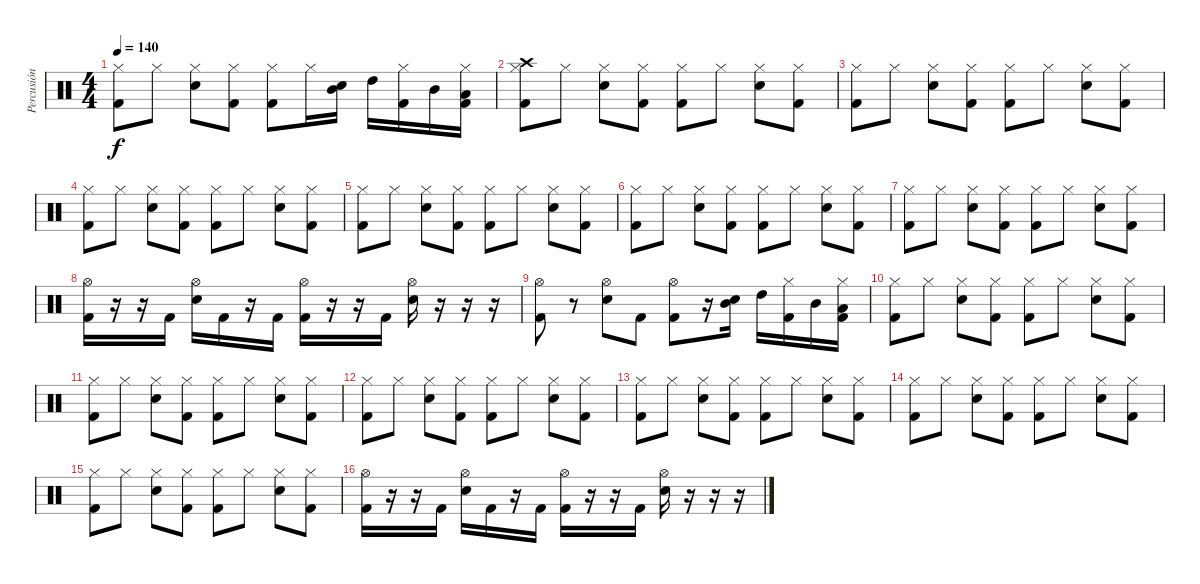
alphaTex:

\track ("Percusión" "Percusión") {instrument percussion}
\staff {score}
\articulation defaults
\ts (4 4)
\tempo 140
\clef neutral
\ks c
("Hi-Hat (closed)" "Kick (hit) 2").8{dy f} "Hi-Hat (closed)".8 ("Hi-Hat (closed)" "Snare (hit) 2").8 ("Hi-Hat (closed)" "Kick (hit) 2").8 ("Hi-Hat (closed)" "Kick (hit) 2").8 "Hi-Hat (closed)".16 ("Mid Tom (hit)" "Snare (hit) 2").16 "High Tom (hit)".16 ("Hi-Hat (closed)" "Kick (hit) 2").16 "Mid Tom (hit)".16 ("Hi-Hat (closed)" "Low Tom (hit)" "Kick (hit) 2").16 |
("Hi-Hat (closed)" "Kick (hit) 2" "Crash high (hit)").8 "Hi-Hat (closed)".8 ("Hi-Hat (closed)" "Snare (hit) 2").8 ("Hi-Hat (closed)" "Kick (hit) 2").8 ("Hi-Hat (closed)" "Kick (hit) 2").8 "Hi-Hat (closed)".8 ("Hi-Hat (closed)" "Snare (hit) 2").8 ("Hi-Hat (closed)" "Kick (hit) 2").8 |
("Hi-Hat (closed)" "Kick (hit) 2").8 "Hi-Hat (closed)".8 ("Hi-Hat (closed)" "Snare (hit) 2").8 ("Hi-Hat (closed)" "Kick (hit) 2").8 ("Hi-Hat (closed)" "Kick (hit) 2").8 "Hi-Hat (closed)".8 ("Hi-Hat (closed)" "Snare (hit) 2").8 ("Hi-Hat (closed)" "Kick (hit) 2").8 |
("Hi-Hat (closed)" "Kick (hit) 2").8 "Hi-Hat (closed)".8 ("Hi-Hat (closed)" "Snare (hit) 2").8 ("Hi-Hat (closed)" "Kick (hit) 2").8 ("Hi-Hat (closed)" "Kick (hit) 2").8 "Hi-Hat (closed)".8 ("Hi-Hat (closed)" "Snare (hit) 2").8 ("Hi-Hat (closed)" "Kick (hit) 2").8 |
("Hi-Hat (closed)" "Kick (hit) 2").8 "Hi-Hat (closed)".8 ("Hi-Hat (closed)" "Snare (hit) 2").8 ("Hi-Hat (closed)" "Kick (hit) 2").8 ("Hi-Hat (closed)" "Kick (hit) 2").8 "Hi-Hat (closed)".8 ("Hi-Hat (closed)" "Snare (hit) 2").8 ("Hi-Hat (closed)" "Kick (hit) 2").8 |
("Hi-Hat (closed)" "Kick (hit) 2").8 "Hi-Hat (closed)".8 ("Hi-Hat (closed)" "Snare (hit) 2").8 ("Hi-Hat (closed)" "Kick (hit) 2").8 ("Hi-Hat (closed)" "Kick (hit) 2").8 "Hi-Hat (closed)".8 ("Hi-Hat (closed)" "Snare (hit) 2").8 ("Hi-Hat (closed)" "Kick (hit) 2").8 |
("Hi-Hat (closed)" "Kick (hit) 2").8 "Hi-Hat (closed)".8 ("Hi-Hat (closed)" "Snare (hit) 2").8 ("Hi-Hat (closed)" "Kick (hit) 2").8 ("Hi-Hat (closed)" "Kick (hit) 2").8 "Hi-Hat (closed)".8 ("Hi-Hat (closed)" "Snare (hit) 2").8 ("Hi-Hat (closed)" "Kick (hit) 2").8 |
("Hi-Hat (open)" "Kick (hit) 2").16 r.16 r.16 "Kick (hit) 2".16 ("Hi-Hat (open)" "Snare (hit) 2").16 "Kick (hit) 2".16 r.16 "Kick (hit) 2".16 ("Hi-Hat (open)" "Kick (hit) 2").16 r.16 r.16 "Kick (hit) 2".16 ("Hi-Hat (open)" "Snare (hit) 2").16 r.16 r.16 r.16 |
("Hi-Hat (open)" "Kick (hit) 2").8 r.8 ("Hi-Hat (open)" "Snare (hit) 2").8 "Kick (hit) 2".8 ("Hi-Hat (open)" "Kick (hit) 2").8 r.16 ("Mid Tom (hit)" "Snare (hit) 2").16 "High Tom (hit)".16 ("Hi-Hat (closed)" "Kick (hit) 2").16 "Mid Tom (hit)".16 ("Hi-Hat (closed)" "Low Tom (hit)" "Kick (hit) 2").16 |
("Hi-Hat (closed)" "Kick (hit) 2").8 "Hi-Hat (closed)".8 ("Hi-Hat (closed)" "Snare (hit) 2").8 ("Hi-Hat (closed)" "Kick (hit) 2").8 ("Hi-Hat (closed)" "Kick (hit) 2").8 "Hi-Hat (closed)".8 ("Hi-Hat (closed)" "Snare (hit) 2").8 ("Hi-Hat (closed)" "Kick (hit) 2").8 |
("Hi-Hat (closed)" "Kick (hit) 2").8 "Hi-Hat (closed)".8 ("Hi-Hat (closed)" "Snare (hit) 2").8 ("Hi-Hat (closed)" "Kick (hit) 2").8 ("Hi-Hat (closed)" "Kick (hit) 2").8 "Hi-Hat (closed)".8 ("Hi-Hat (closed)" "Snare (hit) 2").8 ("Hi-Hat (closed)" "Kick (hit) 2").8 |
("Hi-Hat (closed)" "Kick (hit) 2").8 "Hi-Hat (closed)".8 ("Hi-Hat (closed)" "Snare (hit) 2").8 ("Hi-Hat (closed)" "Kick (hit) 2").8 ("Hi-Hat (closed)" "Kick (hit) 2").8 "Hi-Hat (closed)".8 ("Hi-Hat (closed)" "Snare (hit) 2").8 ("Hi-Hat (closed)" "Kick (hit) 2").8 |
("Hi-Hat (closed)" "Kick (hit) 2").8 "Hi-Hat (closed)".8 ("Hi-Hat (closed)" "Snare (hit) 2").8 ("Hi-Hat (closed)" "Kick (hit) 2").8 ("Hi-Hat (closed)" "Kick (hit) 2").8 "Hi-Hat (closed)".8 ("Hi-Hat (closed)" "Snare (hit) 2").8 ("Hi-Hat (closed)" "Kick (hit) 2").8 |
("Hi-Hat (closed)" "Kick (hit) 2").8 "Hi-Hat (closed)".8 ("Hi-Hat (closed)" "Snare (hit) 2").8 ("Hi-Hat (closed)" "Kick (hit) 2").8 ("Hi-Hat (closed)" "Kick (hit) 2").8 "Hi-Hat (closed)".8 ("Hi-Hat (closed)" "Snare (hit) 2").8 ("Hi-Hat (closed)" "Kick (hit) 2").8 |
("Hi-Hat (closed)" "Kick (hit) 2").8 "Hi-Hat (closed)".8 ("Hi-Hat (closed)" "Snare (hit) 2").8 ("Hi-Hat (closed)" "Kick (hit) 2").8 ("Hi-Hat (closed)" "Kick (hit) 2").8 "Hi-Hat (closed)".8 ("Hi-Hat (closed)" "Snare (hit) 2").8 ("Hi-Hat (closed)" "Kick (hit) 2").8 |
("Hi-Hat (open)" "Kick (hit) 2").16 r.16 r.16 "Kick (hit) 2".16 ("Hi-Hat (open)" "Snare (hit) 2").16 "Kick (hit) 2".16 r.16 "Kick (hit) 2".16 ("Hi-Hat (open)" "Kick (hit) 2").16 r.16 r.16 "Kick (hit) 2".16 ("Hi-Hat (open)" "Snare (hit) 2").16 r.16 r.16 r.16
